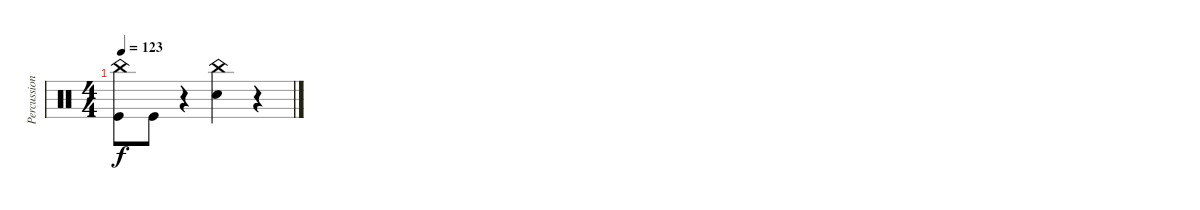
\track ("Percussions" "Percussion") {instrument percussion}
\staff {score}
\articulation defaults
\ts (4 4)
\tempo 123
\clef neutral
\ks c
("China (hit)" "Kick (hit)").8{dy f} "Kick (hit)".8 r.4 ("China (hit)" "Electric Snare (hit)").4 r.4
